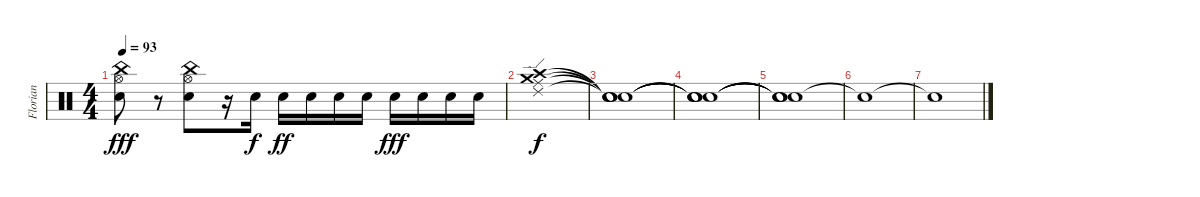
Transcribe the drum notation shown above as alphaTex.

\track ("Florian" "Florian") {instrument percussion}
\staff {score}
\articulation defaults
\ts (4 4)
\tempo 93
\clef neutral
\ks c
("Hi-Hat (open)" "China (hit)" "Electric Snare (hit)").8{dy fff} r.8 ("Hi-Hat (open)" "China (hit)" "Snare (hit) 2").8 r.16 "Snare (hit) 2".16{dy f} "Snare (hit) 2".16{dy ff} "Electric Snare (hit)".16 "Snare (hit) 2".16 "Electric Snare (hit)".16 "Snare (hit) 2".16{dy fff} "Electric Snare (hit)".16 "Snare (hit) 2".16 "Electric Snare (hit)".16 |
("Crash high (hit)" "Crash medium (hit)" "Ride (edge) 2" "Ride (middle)").1{dy f} |
("Snare (hit)"{t} "Snare (hit)"{t} "Snare (hit)"{t} "Snare (hit)"{t}).1 |
("Snare (hit)"{t} "Snare (hit)"{t} "Snare (hit)"{t} "Snare (hit)"{t}).1 |
("Snare (hit)"{t} "Snare (hit)"{t} "Snare (hit)"{t} "Snare (hit)"{t}).1 |
"Snare (hit)"{t}.1 |
"Snare (hit)"{t}.1
